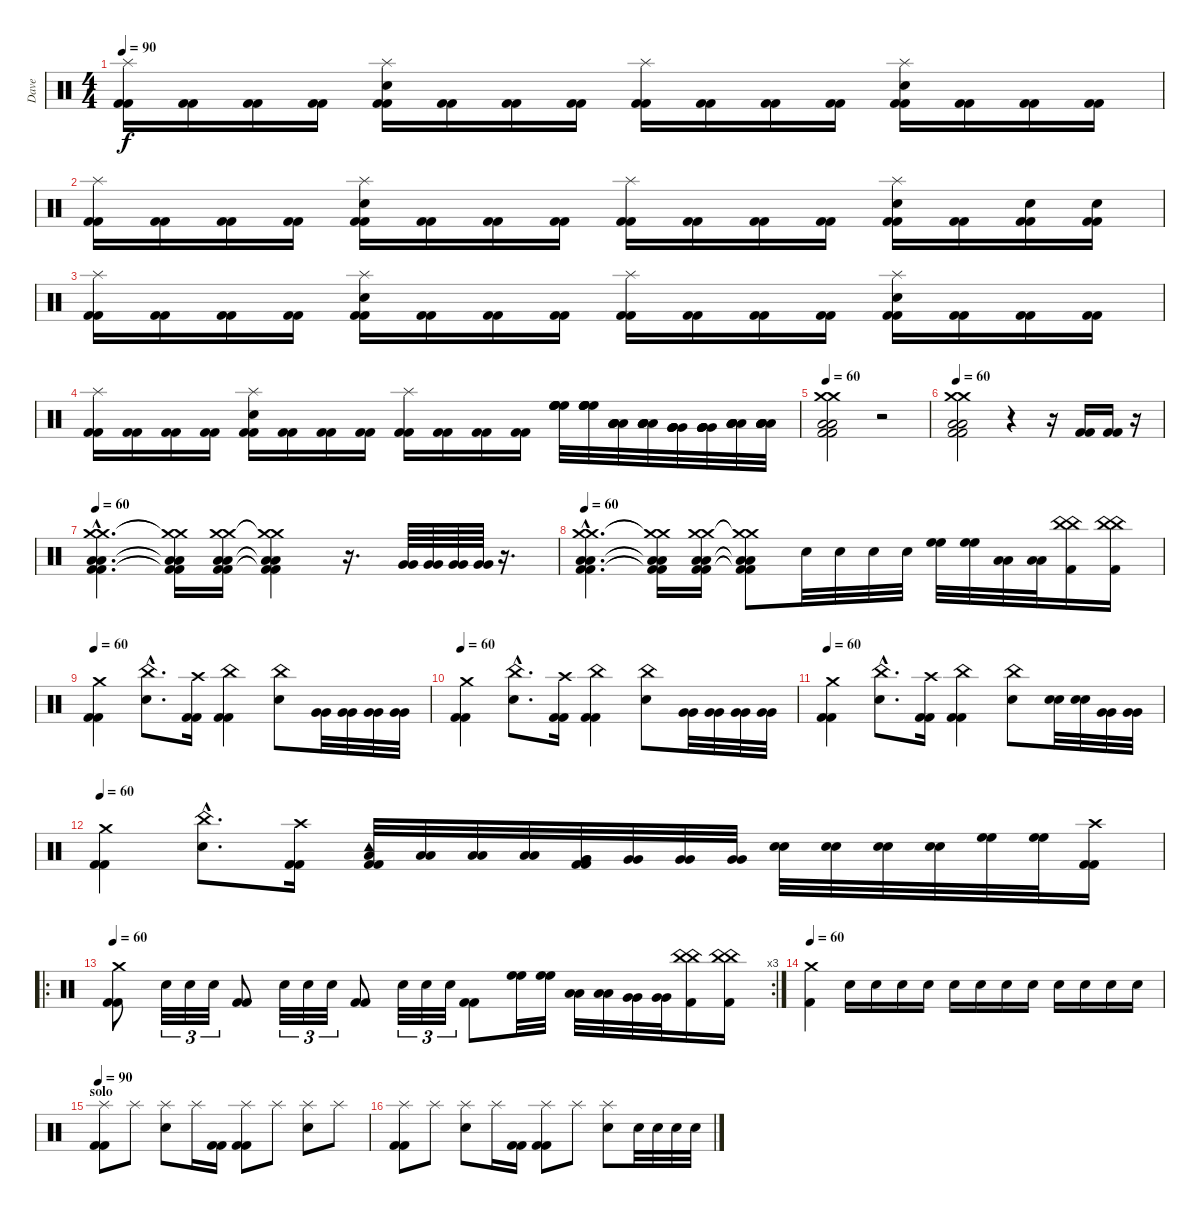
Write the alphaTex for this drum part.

\track ("Dave" "Dave") {instrument percussion}
\staff {score}
\articulation defaults
\ts (4 4)
\tempo 90
\clef neutral
\ks c
("Splash (hit)" "Kick (hit) 2" "Kick (hit) 2").16{dy f} ("Kick (hit) 2" "Kick (hit) 2").16 ("Kick (hit) 2" "Kick (hit) 2").16 ("Kick (hit) 2" "Kick (hit) 2").16 ("Splash (hit)" "Electric Snare (hit)" "Kick (hit) 2" "Kick (hit) 2").16 ("Kick (hit) 2" "Kick (hit) 2").16 ("Kick (hit) 2" "Kick (hit) 2").16 ("Kick (hit) 2" "Kick (hit) 2").16 ("Splash (hit)" "Kick (hit) 2" "Kick (hit) 2").16 ("Kick (hit) 2" "Kick (hit) 2").16 ("Kick (hit) 2" "Kick (hit) 2").16 ("Kick (hit) 2" "Kick (hit) 2").16 ("Splash (hit)" "Electric Snare (hit)" "Kick (hit) 2" "Kick (hit) 2").16 ("Kick (hit) 2" "Kick (hit) 2").16 ("Kick (hit) 2" "Kick (hit) 2").16 ("Kick (hit) 2" "Kick (hit) 2").16 |
("Splash (hit)" "Kick (hit) 2" "Kick (hit) 2").16 ("Kick (hit) 2" "Kick (hit) 2").16 ("Kick (hit) 2" "Kick (hit) 2").16 ("Kick (hit) 2" "Kick (hit) 2").16 ("Splash (hit)" "Electric Snare (hit)" "Kick (hit) 2" "Kick (hit) 2").16 ("Kick (hit) 2" "Kick (hit) 2").16 ("Kick (hit) 2" "Kick (hit) 2").16 ("Kick (hit) 2" "Kick (hit) 2").16 ("Splash (hit)" "Kick (hit) 2" "Kick (hit) 2").16 ("Kick (hit) 2" "Kick (hit) 2").16 ("Kick (hit) 2" "Kick (hit) 2").16 ("Kick (hit) 2" "Kick (hit) 2").16 ("Splash (hit)" "Electric Snare (hit)" "Kick (hit) 2" "Kick (hit) 2").16 ("Kick (hit) 2" "Kick (hit) 2").16 ("Electric Snare (hit)" "Kick (hit) 2" "Kick (hit) 2").16 ("Electric Snare (hit)" "Kick (hit) 2" "Kick (hit) 2").16 |
("Splash (hit)" "Kick (hit) 2" "Kick (hit) 2").16 ("Kick (hit) 2" "Kick (hit) 2").16 ("Kick (hit) 2" "Kick (hit) 2").16 ("Kick (hit) 2" "Kick (hit) 2").16 ("Splash (hit)" "Electric Snare (hit)" "Kick (hit) 2" "Kick (hit) 2").16 ("Kick (hit) 2" "Kick (hit) 2").16 ("Kick (hit) 2" "Kick (hit) 2").16 ("Kick (hit) 2" "Kick (hit) 2").16 ("Splash (hit)" "Kick (hit) 2" "Kick (hit) 2").16 ("Kick (hit) 2" "Kick (hit) 2").16 ("Kick (hit) 2" "Kick (hit) 2").16 ("Kick (hit) 2" "Kick (hit) 2").16 ("Splash (hit)" "Electric Snare (hit)" "Kick (hit) 2" "Kick (hit) 2").16 ("Kick (hit) 2" "Kick (hit) 2").16 ("Kick (hit) 2" "Kick (hit) 2").16 ("Kick (hit) 2" "Kick (hit) 2").16 |
("Splash (hit)" "Kick (hit) 2" "Kick (hit) 2").16 ("Kick (hit) 2" "Kick (hit) 2").16 ("Kick (hit) 2" "Kick (hit) 2").16 ("Kick (hit) 2" "Kick (hit) 2").16 ("Splash (hit)" "Electric Snare (hit)" "Kick (hit) 2" "Kick (hit) 2").16 ("Kick (hit) 2" "Kick (hit) 2").16 ("Kick (hit) 2" "Kick (hit) 2").16 ("Kick (hit) 2" "Kick (hit) 2").16 ("Splash (hit)" "Kick (hit) 2" "Kick (hit) 2").16 ("Kick (hit) 2" "Kick (hit) 2").16 ("Kick (hit) 2" "Kick (hit) 2").16 ("Kick (hit) 2" "Kick (hit) 2").16 ("High Floor Tom (hit)" "High Floor Tom (hit)" "High Floor Tom (hit)" "High Floor Tom (hit)" "High Floor Tom (hit)").32 ("High Floor Tom (hit)" "High Floor Tom (hit)" "High Floor Tom (hit)" "High Floor Tom (hit)" "High Floor Tom (hit)").32 ("Low Tom (hit)" "Low Tom (hit)" "Low Tom (hit)" "Low Tom (hit)" "Low Tom (hit)").32 ("Low Tom (hit)" "Low Tom (hit)" "Low Tom (hit)" "Low Tom (hit)" "Low Tom (hit)").32 ("Very Low Tom (hit)" "Very Low Tom (hit)" "Very Low Tom (hit)" "Very Low Tom (hit)" "Very Low Tom (hit)").32 ("Very Low Tom (hit)" "Very Low Tom (hit)" "Very Low Tom (hit)" "Very Low Tom (hit)" "Very Low Tom (hit)").32 ("Low Floor Tom (hit)" "Low Floor Tom (hit)" "Low Floor Tom (hit)" "Low Floor Tom (hit)" "Low Floor Tom (hit)").32 ("Low Floor Tom (hit)" "Low Floor Tom (hit)" "Low Floor Tom (hit)" "Low Floor Tom (hit)" "Low Floor Tom (hit)").32 |
\tempo 60
("Crash medium (hit)" "Crash medium (hit)" "Low Floor Tom (hit)" "Low Floor Tom (hit)" "Kick (hit) 2" "Kick (hit) 2").2 r.2 |
\tempo 60
("Crash medium (hit)" "Crash medium (hit)" "Low Floor Tom (hit)" "Low Floor Tom (hit)" "Kick (hit) 2" "Kick (hit) 2").2 r.4 r.16 ("Kick (hit) 2" "Kick (hit) 2").16 ("Kick (hit) 2" "Kick (hit) 2").16 r.16 |
\tempo 60
("Crash medium (hit)"{hac} "Crash medium (hit)"{hac} "Low Floor Tom (hit)"{hac} "Low Floor Tom (hit)"{hac} "Kick (hit) 2"{hac} "Kick (hit) 2"{hac}).4{d} ("Crash medium (hit)"{t} "Crash medium (hit)"{t} "Low Floor Tom (hit)"{t} "Low Floor Tom (hit)"{t} "Kick (hit) 2"{t} "Kick (hit) 2"{t}).16 ("Crash medium (hit)" "Crash medium (hit)" "Low Floor Tom (hit)" "Low Floor Tom (hit)" "Kick (hit) 2" "Kick (hit) 2").16 ("Crash medium (hit)"{t} "Crash medium (hit)"{t} "Low Floor Tom (hit)"{t} "Low Floor Tom (hit)"{t} "Kick (hit) 2"{t} "Kick (hit) 2"{t}).4 r.16{d} ("Very Low Tom (hit)" "Very Low Tom (hit)").64 ("Very Low Tom (hit)" "Very Low Tom (hit)").64 ("Very Low Tom (hit)" "Very Low Tom (hit)").64 ("Very Low Tom (hit)" "Very Low Tom (hit)").64 r.16{d} |
\tempo 60
("Crash medium (hit)"{hac} "Crash medium (hit)"{hac} "Low Floor Tom (hit)"{hac} "Low Floor Tom (hit)"{hac} "Kick (hit) 2"{hac} "Kick (hit) 2"{hac}).4{d} ("Crash medium (hit)"{t} "Crash medium (hit)"{t} "Low Floor Tom (hit)"{t} "Low Floor Tom (hit)"{t} "Kick (hit) 2"{t} "Kick (hit) 2"{t}).16 ("Crash medium (hit)" "Crash medium (hit)" "Low Floor Tom (hit)" "Low Floor Tom (hit)" "Kick (hit) 2" "Kick (hit) 2").16 ("Crash medium (hit)"{t} "Crash medium (hit)"{t} "Low Floor Tom (hit)"{t} "Low Floor Tom (hit)"{t} "Kick (hit) 2"{t} "Kick (hit) 2"{t}).8 "Electric Snare (hit)".32 "Electric Snare (hit)".32 "Electric Snare (hit)".32 "Electric Snare (hit)".32 ("High Floor Tom (hit)" "High Floor Tom (hit)").32 ("High Floor Tom (hit)" "High Floor Tom (hit)").32 ("Low Tom (hit)" "Low Tom (hit)").32 ("Low Tom (hit)" "Low Tom (hit)").32 ("China (hit)" "China (hit)" "Kick (hit) 2").16 ("China (hit)" "China (hit)" "Kick (hit) 2").16 |
\tempo 60
("Crash medium (hit)" "Kick (hit) 2" "Kick (hit) 2").4 ("China (hit)"{hac} "Electric Snare (hit)"{hac}).8{d} ("Crash high (hit)" "Kick (hit) 2" "Kick (hit) 2").16 ("China (hit)" "Kick (hit) 2" "Kick (hit) 2").4 ("China (hit)" "Electric Snare (hit)").8 ("Very Low Tom (hit)" "Very Low Tom (hit)").32 ("Very Low Tom (hit)" "Very Low Tom (hit)").32 ("Very Low Tom (hit)" "Very Low Tom (hit)").32 ("Very Low Tom (hit)" "Very Low Tom (hit)").32 |
\tempo 60
("Crash medium (hit)" "Kick (hit) 2" "Kick (hit) 2").4 ("China (hit)"{hac} "Electric Snare (hit)"{hac}).8{d} ("Crash high (hit)" "Kick (hit) 2" "Kick (hit) 2").16 ("China (hit)" "Kick (hit) 2" "Kick (hit) 2").4 ("China (hit)" "Electric Snare (hit)").8 ("Very Low Tom (hit)" "Very Low Tom (hit)").32 ("Very Low Tom (hit)" "Very Low Tom (hit)").32 ("Very Low Tom (hit)" "Very Low Tom (hit)").32 ("Very Low Tom (hit)" "Very Low Tom (hit)").32 |
\tempo 60
("Crash medium (hit)" "Kick (hit) 2" "Kick (hit) 2").4 ("China (hit)"{hac} "Electric Snare (hit)"{hac}).8{d} ("Crash high (hit)" "Kick (hit) 2" "Kick (hit) 2").16 ("China (hit)" "Kick (hit) 2" "Kick (hit) 2").4 ("China (hit)" "Electric Snare (hit)").8 ("Electric Snare (hit)" "Electric Snare (hit)").32 ("Electric Snare (hit)" "Electric Snare (hit)").32 ("Very Low Tom (hit)" "Very Low Tom (hit)").32 ("Very Low Tom (hit)" "Very Low Tom (hit)").32 |
\tempo 60
("Crash medium (hit)" "Kick (hit) 2" "Kick (hit) 2").4 ("China (hit)"{hac} "Electric Snare (hit)"{hac}).8{d} ("Crash high (hit)" "Kick (hit) 2" "Kick (hit) 2").16 ("Low Tom (hit)" "Tambourine (hit)" "Kick (hit) 2" "Kick (hit) 2").32 ("Low Tom (hit)" "Low Tom (hit)").32 ("Low Tom (hit)" "Low Tom (hit)").32 ("Low Tom (hit)" "Low Tom (hit)").32 ("Very Low Tom (hit)" "Very Low Tom (hit)" "Kick (hit) 2" "Kick (hit) 2").32 ("Very Low Tom (hit)" "Very Low Tom (hit)").32 ("Very Low Tom (hit)" "Very Low Tom (hit)").32 ("Very Low Tom (hit)" "Very Low Tom (hit)").32 ("Electric Snare (hit)" "Electric Snare (hit)").32 ("Electric Snare (hit)" "Electric Snare (hit)").32 ("Electric Snare (hit)" "Electric Snare (hit)").32 ("Electric Snare (hit)" "Electric Snare (hit)").32 ("High Floor Tom (hit)" "High Floor Tom (hit)").32 ("High Floor Tom (hit)" "High Floor Tom (hit)").32 ("Crash high (hit)" "Kick (hit) 2" "Kick (hit) 2").16 |
\ro
\rc 3
\tempo 60
("Crash medium (hit)" "Kick (hit) 2" "Kick (hit) 2").8 "Electric Snare (hit)".32{tu (3 2)} "Electric Snare (hit)".32{tu (3 2)} "Electric Snare (hit)".32{tu (3 2)} ("Kick (hit) 2" "Kick (hit) 2").8 "Electric Snare (hit)".32{tu (3 2)} "Electric Snare (hit)".32{tu (3 2)} "Electric Snare (hit)".32{tu (3 2)} ("Kick (hit) 2" "Kick (hit) 2").8 "Electric Snare (hit)".32{tu (3 2)} "Electric Snare (hit)".32{tu (3 2)} "Electric Snare (hit)".32{tu (3 2)} ("Kick (hit) 2" "Kick (hit) 2").8 ("High Floor Tom (hit)" "High Floor Tom (hit)").32 ("High Floor Tom (hit)" "High Floor Tom (hit)").32 ("Low Tom (hit)" "Low Tom (hit)").32 ("Low Tom (hit)" "Low Tom (hit)").32 ("Very Low Tom (hit)" "Very Low Tom (hit)").32 ("Very Low Tom (hit)" "Very Low Tom (hit)").32 ("China (hit)" "China (hit)" "Kick (hit) 2").16 ("China (hit)" "China (hit)" "Kick (hit) 2").16 |
\tempo 60
("Crash medium (hit)" "Kick (hit) 2").4 "Electric Snare (hit)".16 "Electric Snare (hit)".16 "Electric Snare (hit)".16 "Electric Snare (hit)".16 "Electric Snare (hit)".16 "Electric Snare (hit)".16 "Electric Snare (hit)".16 "Electric Snare (hit)".16 "Electric Snare (hit)".16 "Electric Snare (hit)".16 "Electric Snare (hit)".16 "Electric Snare (hit)".16 |
\section ("" "solo")
\tempo 90
("Splash (hit)" "Kick (hit) 2" "Kick (hit) 2").8 "Splash (hit)".8 ("Splash (hit)" "Electric Snare (hit)").8 "Splash (hit)".16 ("Kick (hit) 2" "Kick (hit) 2").16 ("Splash (hit)" "Kick (hit) 2" "Kick (hit) 2").8 "Splash (hit)".8 ("Splash (hit)" "Electric Snare (hit)").8 "Splash (hit)".8 |
("Splash (hit)" "Kick (hit) 2" "Kick (hit) 2").8 "Splash (hit)".8 ("Splash (hit)" "Electric Snare (hit)").8 "Splash (hit)".16 ("Kick (hit) 2" "Kick (hit) 2").16 ("Splash (hit)" "Kick (hit) 2" "Kick (hit) 2").8 "Splash (hit)".8 ("Splash (hit)" "Electric Snare (hit)").8 "Electric Snare (hit)".32 "Electric Snare (hit)".32 "Electric Snare (hit)".32 "Electric Snare (hit)".32
